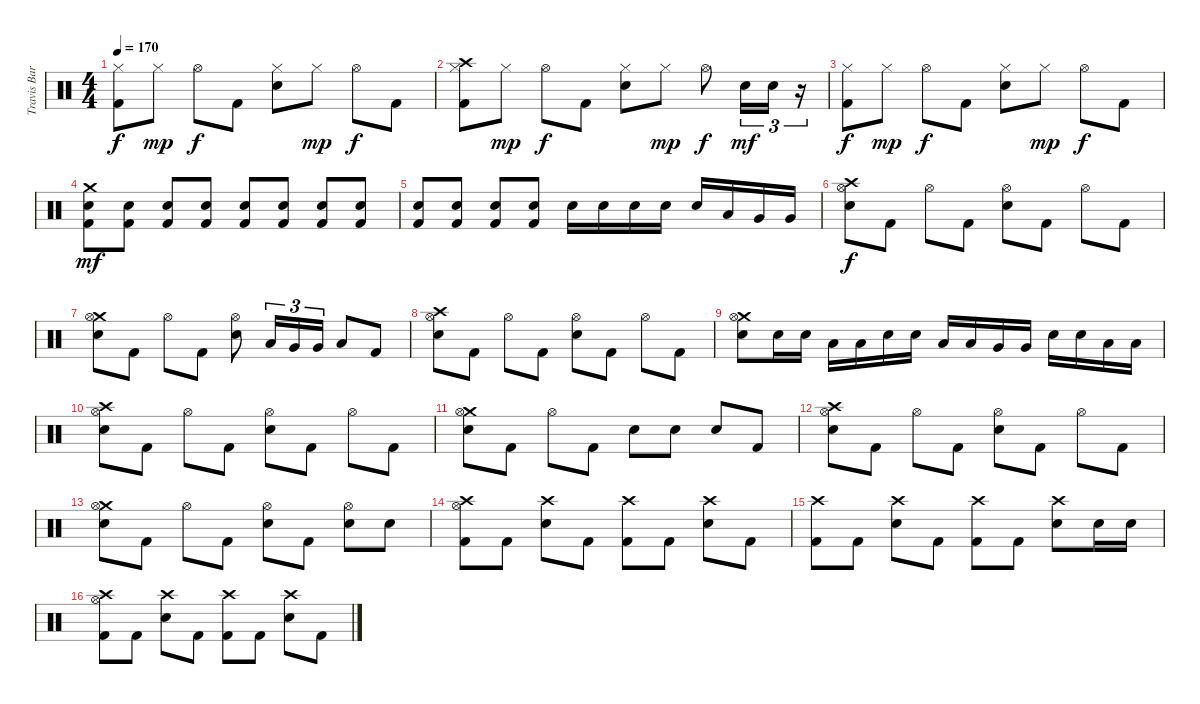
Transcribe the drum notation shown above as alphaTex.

\track ("Travis Barker" "Travis Bar") {instrument percussion}
\staff {score}
\articulation defaults
\ts (4 4)
\tempo 170
\clef neutral
\ks c
("Hi-Hat (closed)" "Kick (hit) 2").8{dy f} "Hi-Hat (closed)".8{dy mp} "Hi-Hat (open)".8{dy f} "Kick (hit) 2".8 ("Hi-Hat (closed)" "Electric Snare (hit)").8 "Hi-Hat (closed)".8{dy mp} "Hi-Hat (open)".8{dy f} "Kick (hit) 2".8 |
("Crash high (hit)" "Hi-Hat (closed)" "Kick (hit) 2").8 "Hi-Hat (closed)".8{dy mp} "Hi-Hat (open)".8{dy f} "Kick (hit) 2".8 ("Hi-Hat (closed)" "Electric Snare (hit)").8 "Hi-Hat (closed)".8{dy mp} "Hi-Hat (open)".8{dy f} "Electric Snare (hit)".16{tu (3 2) dy mf} "Electric Snare (hit)".16{tu (3 2)} r.16{tu (3 2)} |
("Hi-Hat (closed)" "Kick (hit) 2").8{dy f} "Hi-Hat (closed)".8{dy mp} "Hi-Hat (open)".8{dy f} "Kick (hit) 2".8 ("Hi-Hat (closed)" "Electric Snare (hit)").8 "Hi-Hat (closed)".8{dy mp} "Hi-Hat (open)".8{dy f} "Kick (hit) 2".8 |
("Crash medium (hit)" "Electric Snare (hit)" "Kick (hit) 2").8{dy mf} ("Electric Snare (hit)" "Kick (hit) 2").8 ("Electric Snare (hit)" "Kick (hit) 2").8 ("Electric Snare (hit)" "Kick (hit) 2").8 ("Electric Snare (hit)" "Kick (hit) 2").8 ("Electric Snare (hit)" "Kick (hit) 2").8 ("Electric Snare (hit)" "Kick (hit) 2").8 ("Electric Snare (hit)" "Kick (hit) 2").8 |
("Electric Snare (hit)" "Kick (hit) 2").8 ("Electric Snare (hit)" "Kick (hit) 2").8 ("Electric Snare (hit)" "Kick (hit) 2").8 ("Electric Snare (hit)" "Kick (hit) 2").8 "Electric Snare (hit)".16 "Electric Snare (hit)".16 "Electric Snare (hit)".16 "Electric Snare (hit)".16 "Electric Snare (hit)".16 "Low Tom (hit)".16 "Very Low Tom (hit)".16 "Very Low Tom (hit)".16 |
("Crash high (hit)" "Hi-Hat (open)" "Snare (hit) 2").8{dy f} "Kick (hit) 2".8 "Hi-Hat (open)".8 "Kick (hit) 2".8 ("Hi-Hat (open)" "Snare (hit) 2").8 "Kick (hit) 2".8 "Hi-Hat (open)".8 "Kick (hit) 2".8 |
("Crash medium (hit)" "Hi-Hat (open)" "Snare (hit) 2").8 "Kick (hit) 2".8 "Hi-Hat (open)".8 "Kick (hit) 2".8 ("Hi-Hat (open)" "Snare (hit) 2").8 "Low Tom (hit)".16{tu (3 2)} "Very Low Tom (hit)".16{tu (3 2)} "Very Low Tom (hit)".16{tu (3 2)} "Low Tom (hit)".8 "Kick (hit) 2".8 |
("Crash high (hit)" "Hi-Hat (open)" "Snare (hit) 2").8 "Kick (hit) 2".8 "Hi-Hat (open)".8 "Kick (hit) 2".8 ("Hi-Hat (open)" "Snare (hit) 2").8 "Kick (hit) 2".8 "Hi-Hat (open)".8 "Kick (hit) 2".8 |
("Crash medium (hit)" "Hi-Hat (open)" "Snare (hit) 2").8 "Snare (hit) 2".16 "Snare (hit) 2".16 "Low Tom (hit)".16 "Low Tom (hit)".16 "Snare (hit) 2".16 "Snare (hit) 2".16 "Low Tom (hit)".16 "Low Tom (hit)".16 "Very Low Tom (hit)".16 "Very Low Tom (hit)".16 "Snare (hit) 2".16 "Snare (hit) 2".16 "Low Tom (hit)".16 "Low Tom (hit)".16 |
("Crash high (hit)" "Hi-Hat (open)" "Snare (hit) 2").8 "Kick (hit) 2".8 "Hi-Hat (open)".8 "Kick (hit) 2".8 ("Hi-Hat (open)" "Snare (hit) 2").8 "Kick (hit) 2".8 "Hi-Hat (open)".8 "Kick (hit) 2".8 |
("Crash medium (hit)" "Hi-Hat (open)" "Snare (hit) 2").8 "Kick (hit) 2".8 "Hi-Hat (open)".8 "Kick (hit) 2".8 "Snare (hit) 2".8 "Snare (hit) 2".8 "Snare (hit) 2".8 "Kick (hit) 2".8 |
("Crash high (hit)" "Hi-Hat (open)" "Snare (hit) 2").8 "Kick (hit) 2".8 "Hi-Hat (open)".8 "Kick (hit) 2".8 ("Hi-Hat (open)" "Snare (hit) 2").8 "Kick (hit) 2".8 "Hi-Hat (open)".8 "Kick (hit) 2".8 |
("Crash medium (hit)" "Hi-Hat (open)" "Snare (hit) 2").8 "Kick (hit) 2".8 "Hi-Hat (open)".8 "Kick (hit) 2".8 ("Hi-Hat (open)" "Snare (hit) 2").8 "Kick (hit) 2".8 ("Hi-Hat (open)" "Snare (hit) 2").8 "Snare (hit) 2".8 |
("Crash high (hit)" "Hi-Hat (open)" "Kick (hit) 2").8 "Kick (hit) 2".8 ("Crash high (hit)" "Snare (hit) 2").8 "Kick (hit) 2".8 ("Crash high (hit)" "Kick (hit) 2").8 "Kick (hit) 2".8 ("Crash high (hit)" "Snare (hit) 2").8 "Kick (hit) 2".8 |
("Crash high (hit)" "Kick (hit) 2").8 "Kick (hit) 2".8 ("Crash high (hit)" "Snare (hit) 2").8 "Kick (hit) 2".8 ("Crash high (hit)" "Kick (hit) 2").8 "Kick (hit) 2".8 ("Crash high (hit)" "Snare (hit) 2").8 "Snare (hit) 2".16 "Snare (hit) 2".16 |
("Crash high (hit)" "Hi-Hat (open)" "Kick (hit) 2").8 "Kick (hit) 2".8 ("Crash high (hit)" "Snare (hit) 2").8 "Kick (hit) 2".8 ("Crash high (hit)" "Kick (hit) 2").8 "Kick (hit) 2".8 ("Crash high (hit)" "Snare (hit) 2").8 "Kick (hit) 2".8
